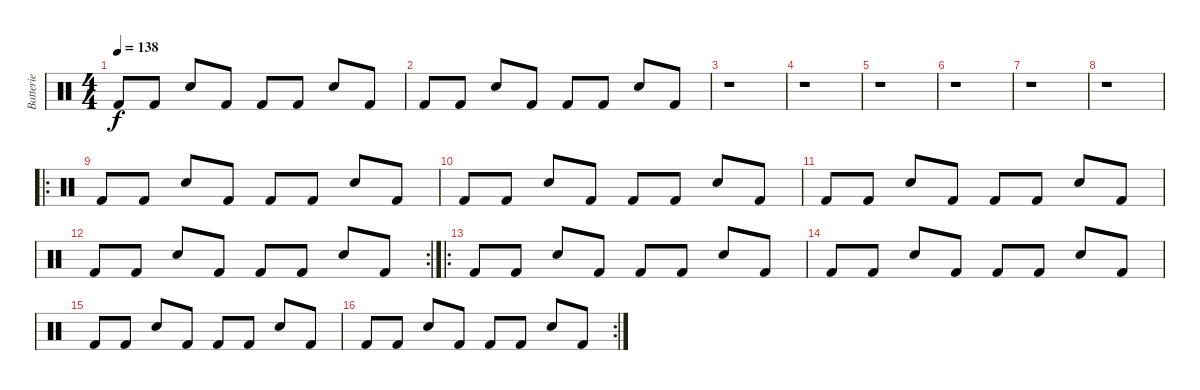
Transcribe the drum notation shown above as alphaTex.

\track ("Batterie" "Batterie") {instrument percussion}
\staff {score}
\articulation defaults
\ts (4 4)
\tempo 138
\clef neutral
\ks c "Kick (hit) 2".8{dy f} "Kick (hit) 2".8 "Snare (hit) 2".8 "Kick (hit) 2".8 "Kick (hit) 2".8 "Kick (hit) 2".8 "Snare (hit) 2".8 "Kick (hit) 2".8
|
"Kick (hit) 2".8 "Kick (hit) 2".8 "Snare (hit) 2".8 "Kick (hit) 2".8 "Kick (hit) 2".8 "Kick (hit) 2".8 "Snare (hit) 2".8 "Kick (hit) 2".8 |
r.1 |
r.1 |
r.1 |
r.1 |
r.1 |
r.1 |
\ro "Kick (hit) 2".8 "Kick (hit) 2".8 "Snare (hit) 2".8 "Kick (hit) 2".8 "Kick (hit) 2".8 "Kick (hit) 2".8 "Snare (hit) 2".8 "Kick (hit) 2".8
|
"Kick (hit) 2".8 "Kick (hit) 2".8 "Snare (hit) 2".8 "Kick (hit) 2".8 "Kick (hit) 2".8 "Kick (hit) 2".8 "Snare (hit) 2".8 "Kick (hit) 2".8 |
"Kick (hit) 2".8 "Kick (hit) 2".8 "Snare (hit) 2".8 "Kick (hit) 2".8 "Kick (hit) 2".8 "Kick (hit) 2".8 "Snare (hit) 2".8 "Kick (hit) 2".8 |
\rc 2 "Kick (hit) 2".8 "Kick (hit) 2".8 "Snare (hit) 2".8 "Kick (hit) 2".8 "Kick (hit) 2".8 "Kick (hit) 2".8 "Snare (hit) 2".8 "Kick (hit) 2".8
|
\ro "Kick (hit) 2".8 "Kick (hit) 2".8 "Snare (hit) 2".8 "Kick (hit) 2".8 "Kick (hit) 2".8 "Kick (hit) 2".8 "Snare (hit) 2".8 "Kick (hit) 2".8
|
"Kick (hit) 2".8 "Kick (hit) 2".8 "Snare (hit) 2".8 "Kick (hit) 2".8 "Kick (hit) 2".8 "Kick (hit) 2".8 "Snare (hit) 2".8 "Kick (hit) 2".8 |
"Kick (hit) 2".8 "Kick (hit) 2".8 "Snare (hit) 2".8 "Kick (hit) 2".8 "Kick (hit) 2".8 "Kick (hit) 2".8 "Snare (hit) 2".8 "Kick (hit) 2".8 |
\rc 2 "Kick (hit) 2".8 "Kick (hit) 2".8 "Snare (hit) 2".8 "Kick (hit) 2".8 "Kick (hit) 2".8 "Kick (hit) 2".8 "Snare (hit) 2".8 "Kick (hit) 2".8
